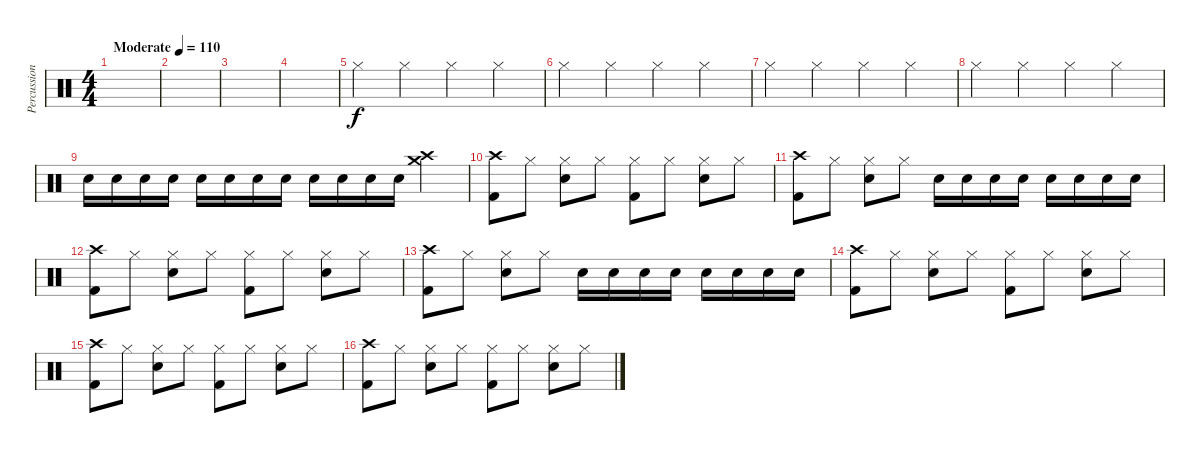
\track ("Percussion" "Percussion") {instrument percussion}
\staff {score}
\articulation defaults
\ts (4 4)
\tempo (110 "Moderate")
\clef neutral
\ks c
|
|
|
|
"Hi-Hat (closed)".4 "Hi-Hat (closed)".4 "Hi-Hat (closed)".4 "Hi-Hat (closed)".4 |
"Hi-Hat (closed)".4 "Hi-Hat (closed)".4 "Hi-Hat (closed)".4 "Hi-Hat (closed)".4 |
"Hi-Hat (closed)".4 "Hi-Hat (closed)".4 "Hi-Hat (closed)".4 "Hi-Hat (closed)".4 |
"Hi-Hat (closed)".4 "Hi-Hat (closed)".4 "Hi-Hat (closed)".4 "Hi-Hat (closed)".4 |
"Electric Snare (hit)".16 "Electric Snare (hit)".16 "Electric Snare (hit)".16 "Electric Snare (hit)".16 "Electric Snare (hit)".16 "Electric Snare (hit)".16 "Electric Snare (hit)".16 "Electric Snare (hit)".16 "Electric Snare (hit)".16 "Electric Snare (hit)".16 "Electric Snare (hit)".16 "Electric Snare (hit)".16 ("Crash medium (hit)" "Crash high (hit)").4 |
("Crash high (hit)" "Kick (hit) 2").8 "Hi-Hat (closed)".8 ("Hi-Hat (closed)" "Electric Snare (hit)").8 "Hi-Hat (closed)".8 ("Hi-Hat (closed)" "Kick (hit) 2").8 "Hi-Hat (closed)".8 ("Hi-Hat (closed)" "Electric Snare (hit)").8 "Hi-Hat (closed)".8 |
("Crash high (hit)" "Kick (hit) 2").8 "Hi-Hat (closed)".8 ("Hi-Hat (closed)" "Electric Snare (hit)").8 "Hi-Hat (closed)".8 "Electric Snare (hit)".16 "Electric Snare (hit)".16 "Electric Snare (hit)".16 "Electric Snare (hit)".16 "Electric Snare (hit)".16 "Electric Snare (hit)".16 "Electric Snare (hit)".16 "Electric Snare (hit)".16 |
("Crash high (hit)" "Kick (hit) 2").8 "Hi-Hat (closed)".8 ("Hi-Hat (closed)" "Electric Snare (hit)").8 "Hi-Hat (closed)".8 ("Hi-Hat (closed)" "Kick (hit) 2").8 "Hi-Hat (closed)".8 ("Hi-Hat (closed)" "Electric Snare (hit)").8 "Hi-Hat (closed)".8 |
("Crash high (hit)" "Kick (hit) 2").8 "Hi-Hat (closed)".8 ("Hi-Hat (closed)" "Electric Snare (hit)").8 "Hi-Hat (closed)".8 "Electric Snare (hit)".16 "Electric Snare (hit)".16 "Electric Snare (hit)".16 "Electric Snare (hit)".16 "Electric Snare (hit)".16 "Electric Snare (hit)".16 "Electric Snare (hit)".16 "Electric Snare (hit)".16 |
("Crash high (hit)" "Kick (hit) 2").8 "Hi-Hat (closed)".8 ("Hi-Hat (closed)" "Electric Snare (hit)").8 "Hi-Hat (closed)".8 ("Hi-Hat (closed)" "Kick (hit) 2").8 "Hi-Hat (closed)".8 ("Hi-Hat (closed)" "Electric Snare (hit)").8 "Hi-Hat (closed)".8 |
("Crash high (hit)" "Kick (hit) 2").8 "Hi-Hat (closed)".8 ("Hi-Hat (closed)" "Electric Snare (hit)").8 "Hi-Hat (closed)".8 ("Hi-Hat (closed)" "Kick (hit) 2").8 "Hi-Hat (closed)".8 ("Hi-Hat (closed)" "Electric Snare (hit)").8 "Hi-Hat (closed)".8 |
("Crash high (hit)" "Kick (hit) 2").8 "Hi-Hat (closed)".8 ("Hi-Hat (closed)" "Electric Snare (hit)").8 "Hi-Hat (closed)".8 ("Hi-Hat (closed)" "Kick (hit) 2").8 "Hi-Hat (closed)".8 ("Hi-Hat (closed)" "Electric Snare (hit)").8 "Hi-Hat (closed)".8
